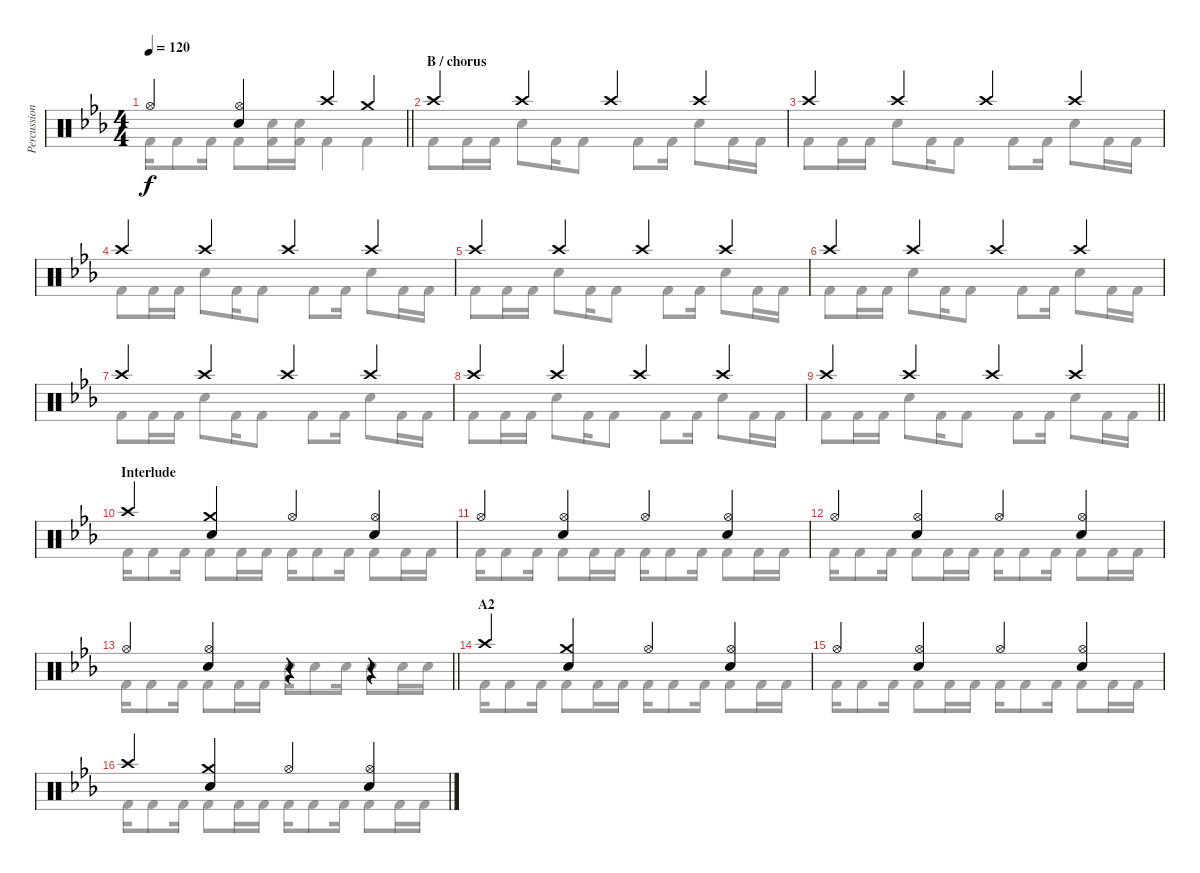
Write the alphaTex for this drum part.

\track ("Percussion" "Percussion") {instrument percussion}
\staff {score}
\articulation defaults
\voice
\ts (4 4)
\tempo 120
\clef neutral
\barLineRight lightlight
\ks cminor "Hi-Hat (open)".4{dy f}
("Hi-Hat (open)" "Snare (hit) 2").4 "Crash high (hit)".4 "Crash medium (hit)".4 |
\section ("" "B / chorus")
"Crash high (hit)".4 "Crash high (hit)".4 "Crash high (hit)".4 "Crash high (hit)".4 |
"Crash high (hit)".4 "Crash high (hit)".4 "Crash high (hit)".4 "Crash high (hit)".4 |
"Crash high (hit)".4 "Crash high (hit)".4 "Crash high (hit)".4 "Crash high (hit)".4 |
"Crash high (hit)".4 "Crash high (hit)".4 "Crash high (hit)".4 "Crash high (hit)".4 |
"Crash high (hit)".4 "Crash high (hit)".4 "Crash high (hit)".4 "Crash high (hit)".4 |
"Crash high (hit)".4 "Crash high (hit)".4 "Crash high (hit)".4 "Crash high (hit)".4 |
"Crash high (hit)".4 "Crash high (hit)".4 "Crash high (hit)".4 "Crash high (hit)".4 |
\barLineRight lightlight "Crash high (hit)".4 "Crash high (hit)".4 "Crash high (hit)".4 "Crash high (hit)".4
|
\section ("" "Interlude")
"Crash high (hit)".4 ("Crash medium (hit)" "Snare (hit) 2").4 "Hi-Hat (open)".4 ("Hi-Hat (open)" "Snare (hit) 2").4 |
"Hi-Hat (open)".4 ("Hi-Hat (open)" "Snare (hit) 2").4 "Hi-Hat (open)".4 ("Hi-Hat (open)" "Snare (hit) 2").4 |
"Hi-Hat (open)".4 ("Hi-Hat (open)" "Snare (hit) 2").4 "Hi-Hat (open)".4 ("Hi-Hat (open)" "Snare (hit) 2").4 |
\barLineRight lightlight "Hi-Hat (open)".4
("Hi-Hat (open)" "Snare (hit) 2").4 r.4 r.4 |
\section ("" "A2")
"Crash high (hit)".4 ("Crash medium (hit)" "Snare (hit) 2").4 "Hi-Hat (open)".4 ("Hi-Hat (open)" "Snare (hit) 2").4 |
"Hi-Hat (open)".4 ("Hi-Hat (open)" "Snare (hit) 2").4 "Hi-Hat (open)".4 ("Hi-Hat (open)" "Snare (hit) 2").4 |
"Crash high (hit)".4 ("Crash medium (hit)" "Snare (hit) 2").4 "Hi-Hat (open)".4 ("Hi-Hat (open)" "Snare (hit) 2").4
\voice
\clef neutral
\ottava regular
\simile none
\barLineRight lightlight
\ks cminor "Kick (hit) 2".16{dy f} "Kick (hit) 2".8 "Kick (hit) 2".16 "Kick (hit) 2".8
("Snare (hit) 2" "Kick (hit) 2").16 ("Snare (hit) 2" "Kick (hit) 2").16 "Kick (hit) 2".4 "Kick (hit) 2".4 |
"Kick (hit) 2".8 "Kick (hit) 2".16 "Kick (hit) 2".16 "Snare (hit) 2".8 "Kick (hit) 2".16 "Kick (hit) 2".8 "Kick (hit) 2".8 "Kick (hit) 2".16 "Snare (hit) 2".8 "Kick (hit) 2".16 "Kick (hit) 2".16 |
"Kick (hit) 2".8 "Kick (hit) 2".16 "Kick (hit) 2".16 "Snare (hit) 2".8 "Kick (hit) 2".16 "Kick (hit) 2".8 "Kick (hit) 2".8 "Kick (hit) 2".16 "Snare (hit) 2".8 "Kick (hit) 2".16 "Kick (hit) 2".16 |
"Kick (hit) 2".8 "Kick (hit) 2".16 "Kick (hit) 2".16 "Snare (hit) 2".8 "Kick (hit) 2".16 "Kick (hit) 2".8 "Kick (hit) 2".8 "Kick (hit) 2".16 "Snare (hit) 2".8 "Kick (hit) 2".16 "Kick (hit) 2".16 |
"Kick (hit) 2".8 "Kick (hit) 2".16 "Kick (hit) 2".16 "Snare (hit) 2".8 "Kick (hit) 2".16 "Kick (hit) 2".8 "Kick (hit) 2".8 "Kick (hit) 2".16 "Snare (hit) 2".8 "Kick (hit) 2".16 "Kick (hit) 2".16 |
"Kick (hit) 2".8 "Kick (hit) 2".16 "Kick (hit) 2".16 "Snare (hit) 2".8 "Kick (hit) 2".16 "Kick (hit) 2".8 "Kick (hit) 2".8 "Kick (hit) 2".16 "Snare (hit) 2".8 "Kick (hit) 2".16 "Kick (hit) 2".16 |
"Kick (hit) 2".8 "Kick (hit) 2".16 "Kick (hit) 2".16 "Snare (hit) 2".8 "Kick (hit) 2".16 "Kick (hit) 2".8 "Kick (hit) 2".8 "Kick (hit) 2".16 "Snare (hit) 2".8 "Kick (hit) 2".16 "Kick (hit) 2".16 |
"Kick (hit) 2".8 "Kick (hit) 2".16 "Kick (hit) 2".16 "Snare (hit) 2".8 "Kick (hit) 2".16 "Kick (hit) 2".8 "Kick (hit) 2".8 "Kick (hit) 2".16 "Snare (hit) 2".8 "Kick (hit) 2".16 "Kick (hit) 2".16 |
\barLineRight lightlight "Kick (hit) 2".8 "Kick (hit) 2".16 "Kick (hit) 2".16 "Snare (hit) 2".8 "Kick (hit) 2".16 "Kick (hit) 2".8 "Kick (hit) 2".8 "Kick (hit) 2".16 "Snare (hit) 2".8 "Kick (hit) 2".16 "Kick (hit) 2".16
|
"Kick (hit) 2".16 "Kick (hit) 2".8 "Kick (hit) 2".16 "Kick (hit) 2".8 "Kick (hit) 2".16 "Kick (hit) 2".16 "Kick (hit) 2".16 "Kick (hit) 2".8 "Kick (hit) 2".16 "Kick (hit) 2".8 "Kick (hit) 2".16 "Kick (hit) 2".16 |
"Kick (hit) 2".16 "Kick (hit) 2".8 "Kick (hit) 2".16 "Kick (hit) 2".8 "Kick (hit) 2".16 "Kick (hit) 2".16 "Kick (hit) 2".16 "Kick (hit) 2".8 "Kick (hit) 2".16 "Kick (hit) 2".8 "Kick (hit) 2".16 "Kick (hit) 2".16 |
"Kick (hit) 2".16 "Kick (hit) 2".8 "Kick (hit) 2".16 "Kick (hit) 2".8 "Kick (hit) 2".16 "Kick (hit) 2".16 "Kick (hit) 2".16 "Kick (hit) 2".8 "Kick (hit) 2".16 "Kick (hit) 2".8 "Kick (hit) 2".16 "Kick (hit) 2".16 |
\barLineRight lightlight "Kick (hit) 2".16 "Kick (hit) 2".8 "Kick (hit) 2".16 "Kick (hit) 2".8 "Kick (hit) 2".16 "Kick (hit) 2".16 "Snare (hit) 2".16 "Snare (hit) 2".8 "Snare (hit) 2".16 "Snare (hit) 2".8 "Snare (hit) 2".16 "Snare (hit) 2".16
|
"Kick (hit) 2".16 "Kick (hit) 2".8 "Kick (hit) 2".16 "Kick (hit) 2".8 "Kick (hit) 2".16 "Kick (hit) 2".16 "Kick (hit) 2".16 "Kick (hit) 2".8 "Kick (hit) 2".16 "Kick (hit) 2".8 "Kick (hit) 2".16 "Kick (hit) 2".16 |
"Kick (hit) 2".16 "Kick (hit) 2".8 "Kick (hit) 2".16 "Kick (hit) 2".8 "Kick (hit) 2".16 "Kick (hit) 2".16 "Kick (hit) 2".16 "Kick (hit) 2".8 "Kick (hit) 2".16 "Kick (hit) 2".8 "Kick (hit) 2".16 "Kick (hit) 2".16 |
"Kick (hit) 2".16 "Kick (hit) 2".8 "Kick (hit) 2".16 "Kick (hit) 2".8 "Kick (hit) 2".16 "Kick (hit) 2".16 "Kick (hit) 2".16 "Kick (hit) 2".8 "Kick (hit) 2".16 "Kick (hit) 2".8 "Kick (hit) 2".16 "Kick (hit) 2".16
